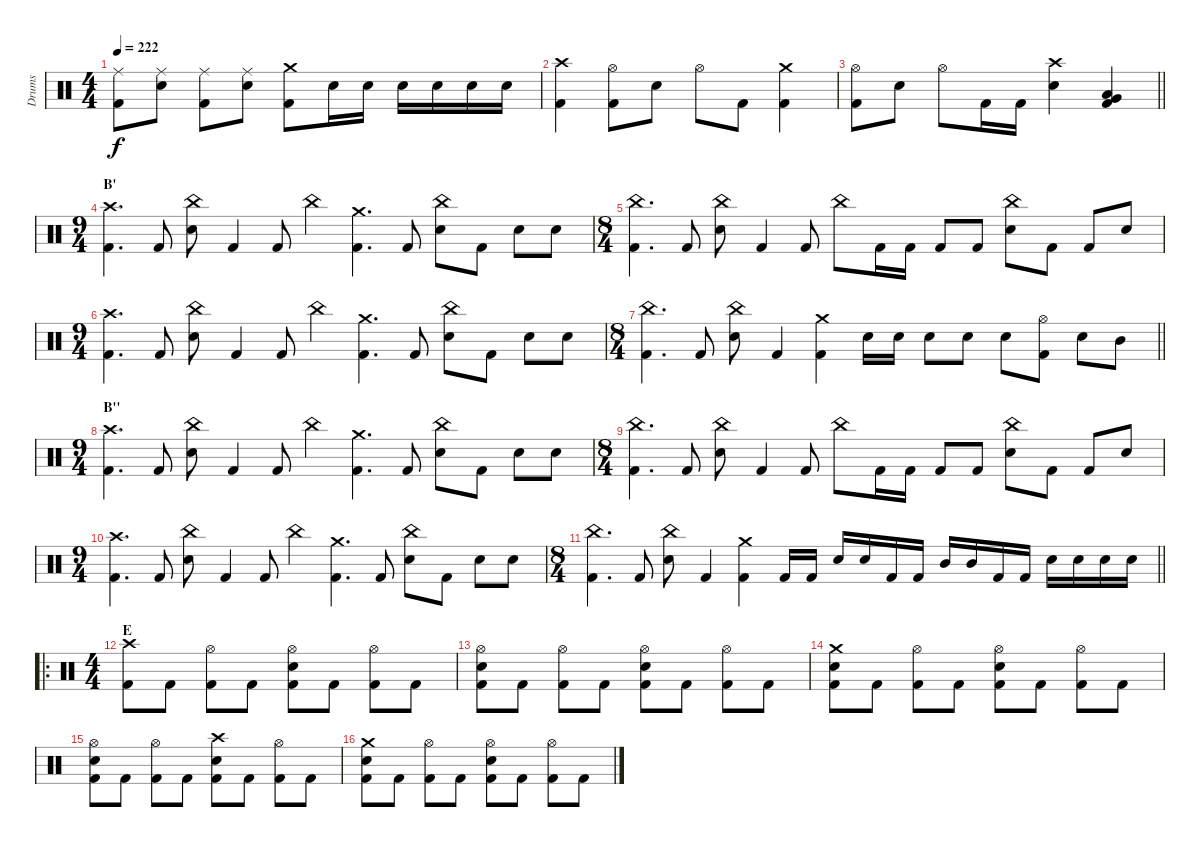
\track ("Drums" "Drums") {instrument percussion}
\staff {score}
\articulation defaults
\ts (4 4)
\tempo 222
\clef neutral
\ks c
("Ride (middle)" "Kick (hit) 2").8{dy f} ("Ride (middle)" "Electric Snare (hit)").8 ("Ride (middle)" "Kick (hit) 2").8 ("Ride (middle)" "Electric Snare (hit)").8 ("Crash medium (hit)" "Kick (hit) 2").8 "Electric Snare (hit)".16 "Electric Snare (hit)".16 "Electric Snare (hit)".16 "Electric Snare (hit)".16 "Electric Snare (hit)".16 "Electric Snare (hit)".16 |
("Crash high (hit)" "Kick (hit) 2").4 ("Hi-Hat (open)" "Kick (hit) 2").8 "Electric Snare (hit)".8 "Hi-Hat (open)".8 "Kick (hit) 2".8 ("Crash medium (hit)" "Kick (hit) 2").4 |
\barLineRight lightlight
("Hi-Hat (open)" "Kick (hit) 2").8 "Electric Snare (hit)".8 "Hi-Hat (open)".8 "Kick (hit) 2".16 "Kick (hit) 2".16 ("Crash high (hit)" "Electric Snare (hit)").4 ("Low Tom (hit)" "Very Low Tom (hit)" "Kick (hit) 2").4 |
\ts (9 4)
\section ("" "B'")
("Crash high (hit)" "Kick (hit) 2").4{d} "Kick (hit) 2".8 ("China (hit)" "Electric Snare (hit)").8 "Kick (hit) 2".4 "Kick (hit) 2".8 "China (hit)".4 ("Crash medium (hit)" "Kick (hit) 2").4{d} "Kick (hit) 2".8 ("China (hit)" "Electric Snare (hit)").8 "Kick (hit) 2".8 "Electric Snare (hit)".8 "Electric Snare (hit)".8 |
\ts (8 4)
("China (hit)" "Kick (hit) 2").4{d} "Kick (hit) 2".8 ("China (hit)" "Electric Snare (hit)").8 "Kick (hit) 2".4 "Kick (hit) 2".8 "China (hit)".8 "Kick (hit) 2".16 "Kick (hit) 2".16 "Kick (hit) 2".8 "Kick (hit) 2".8 ("China (hit)" "Electric Snare (hit)").8 "Kick (hit) 2".8 "Kick (hit) 2".8 "Electric Snare (hit)".8 |
\ts (9 4)
("Crash high (hit)" "Kick (hit) 2").4{d} "Kick (hit) 2".8 ("China (hit)" "Electric Snare (hit)").8 "Kick (hit) 2".4 "Kick (hit) 2".8 "China (hit)".4 ("Crash medium (hit)" "Kick (hit) 2").4{d} "Kick (hit) 2".8 ("China (hit)" "Electric Snare (hit)").8 "Kick (hit) 2".8 "Electric Snare (hit)".8 "Electric Snare (hit)".8 |
\ts (8 4)
\barLineRight lightlight
("China (hit)" "Kick (hit) 2").4{d} "Kick (hit) 2".8 ("China (hit)" "Electric Snare (hit)").8 "Kick (hit) 2".4 ("Crash medium (hit)" "Kick (hit) 2").4 "Electric Snare (hit)".16 "Electric Snare (hit)".16 "Electric Snare (hit)".8 "Electric Snare (hit)".8 "Electric Snare (hit)".8 ("Hi-Hat (open)" "Kick (hit) 2").8 "Electric Snare (hit)".8 "Mid Tom (hit)".8 |
\ts (9 4)
\section ("" "B''")
("Crash high (hit)" "Kick (hit) 2").4{d} "Kick (hit) 2".8 ("China (hit)" "Electric Snare (hit)").8 "Kick (hit) 2".4 "Kick (hit) 2".8 "China (hit)".4 ("Crash medium (hit)" "Kick (hit) 2").4{d} "Kick (hit) 2".8 ("China (hit)" "Electric Snare (hit)").8 "Kick (hit) 2".8 "Electric Snare (hit)".8 "Electric Snare (hit)".8 |
\ts (8 4)
("China (hit)" "Kick (hit) 2").4{d} "Kick (hit) 2".8 ("China (hit)" "Electric Snare (hit)").8 "Kick (hit) 2".4 "Kick (hit) 2".8 "China (hit)".8 "Kick (hit) 2".16 "Kick (hit) 2".16 "Kick (hit) 2".8 "Kick (hit) 2".8 ("China (hit)" "Electric Snare (hit)").8 "Kick (hit) 2".8 "Kick (hit) 2".8 "Electric Snare (hit)".8 |
\ts (9 4)
("Crash high (hit)" "Kick (hit) 2").4{d} "Kick (hit) 2".8 ("China (hit)" "Electric Snare (hit)").8 "Kick (hit) 2".4 "Kick (hit) 2".8 "China (hit)".4 ("Crash medium (hit)" "Kick (hit) 2").4{d} "Kick (hit) 2".8 ("China (hit)" "Electric Snare (hit)").8 "Kick (hit) 2".8 "Electric Snare (hit)".8 "Electric Snare (hit)".8 |
\ts (8 4)
\barLineRight lightlight
("China (hit)" "Kick (hit) 2").4{d} "Kick (hit) 2".8 ("China (hit)" "Electric Snare (hit)").8 "Kick (hit) 2".4 ("Crash medium (hit)" "Kick (hit) 2").4 "Kick (hit) 2".16 "Kick (hit) 2".16 "Electric Snare (hit)".16 "Electric Snare (hit)".16 "Kick (hit) 2".16 "Kick (hit) 2".16 "Mid Tom (hit)".16 "Mid Tom (hit)".16 "Kick (hit) 2".16 "Kick (hit) 2".16 "Electric Snare (hit)".16 "Electric Snare (hit)".16 "Electric Snare (hit)".16 "Electric Snare (hit)".16 |
\ro
\ts (4 4)
\section ("" "E")
("Crash high (hit)" "Kick (hit) 2").8 "Kick (hit) 2".8 ("Hi-Hat (open)" "Kick (hit) 2").8 "Kick (hit) 2".8 ("Hi-Hat (open)" "Electric Snare (hit)" "Kick (hit) 2").8 "Kick (hit) 2".8 ("Hi-Hat (open)" "Kick (hit) 2").8 "Kick (hit) 2".8 |
("Hi-Hat (open)" "Electric Snare (hit)" "Kick (hit) 2").8 "Kick (hit) 2".8 ("Hi-Hat (open)" "Kick (hit) 2").8 "Kick (hit) 2".8 ("Hi-Hat (open)" "Electric Snare (hit)" "Kick (hit) 2").8 "Kick (hit) 2".8 ("Hi-Hat (open)" "Kick (hit) 2").8 "Kick (hit) 2".8 |
("Crash medium (hit)" "Electric Snare (hit)" "Kick (hit) 2").8 "Kick (hit) 2".8 ("Hi-Hat (open)" "Kick (hit) 2").8 "Kick (hit) 2".8 ("Hi-Hat (open)" "Electric Snare (hit)" "Kick (hit) 2").8 "Kick (hit) 2".8 ("Hi-Hat (open)" "Kick (hit) 2").8 "Kick (hit) 2".8 |
("Hi-Hat (open)" "Electric Snare (hit)" "Kick (hit) 2").8 "Kick (hit) 2".8 ("Hi-Hat (open)" "Kick (hit) 2").8 "Kick (hit) 2".8 ("Crash high (hit)" "Electric Snare (hit)" "Kick (hit) 2").8 "Kick (hit) 2".8 ("Hi-Hat (open)" "Kick (hit) 2").8 "Kick (hit) 2".8 |
("Crash medium (hit)" "Electric Snare (hit)" "Kick (hit) 2").8 "Kick (hit) 2".8 ("Hi-Hat (open)" "Kick (hit) 2").8 "Kick (hit) 2".8 ("Hi-Hat (open)" "Electric Snare (hit)" "Kick (hit) 2").8 "Kick (hit) 2".8 ("Hi-Hat (open)" "Kick (hit) 2").8 "Kick (hit) 2".8
